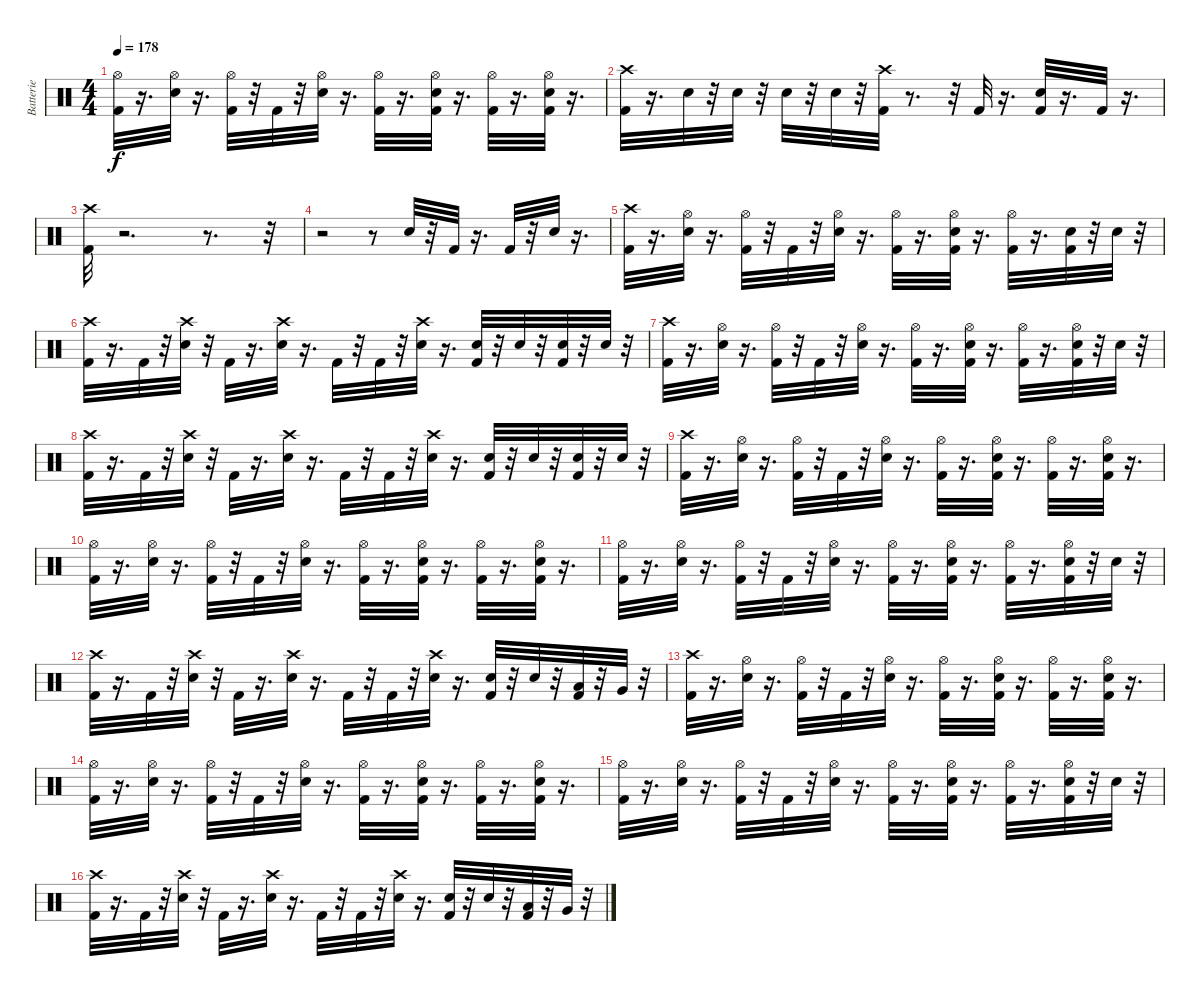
\track ("Batterie" "Batterie") {instrument percussion}
\staff {score}
\articulation defaults
\ts (4 4)
\tempo 178
\clef neutral
\ks c
("Kick (hit) 2" "Hi-Hat (open)").32{dy f} r.16{d} ("Electric Snare (hit)" "Hi-Hat (open)").32 r.16{d} ("Kick (hit) 2" "Hi-Hat (open)").32 r.32 "Kick (hit) 2".32 r.32 ("Electric Snare (hit)" "Hi-Hat (open)").32 r.16{d} ("Kick (hit) 2" "Hi-Hat (open)").32 r.16{d} ("Kick (hit) 2" "Electric Snare (hit)" "Hi-Hat (open)").32 r.16{d} ("Kick (hit) 2" "Hi-Hat (open)").32 r.16{d} ("Kick (hit) 2" "Electric Snare (hit)" "Hi-Hat (open)").32 r.16{d} |
("Kick (hit) 2" "Crash high (hit)").32 r.16{d} "Electric Snare (hit)".32 r.32 "Electric Snare (hit)".32 r.32 "Electric Snare (hit)".32 r.32 "Electric Snare (hit)".32 r.32 ("Crash high (hit)" "Kick (hit) 2").32 r.8{d} r.32 "Kick (hit) 2".32 r.16{d} ("Electric Snare (hit)" "Kick (hit) 2").32 r.16{d} "Kick (hit) 2".32 r.16{d} |
("Kick (hit) 2" "Crash high (hit)").32 r.2{d} r.8{d} r.32 |
r.2 r.8 "Electric Snare (hit)".32 r.32 "Kick (hit) 2".32 r.16{d} "Kick (hit) 2".32 r.32 "Electric Snare (hit)".32 r.16{d} |
("Kick (hit) 2" "Crash high (hit)").32 r.16{d} ("Electric Snare (hit)" "Hi-Hat (open)").32 r.16{d} ("Kick (hit) 2" "Hi-Hat (open)").32 r.32 "Kick (hit) 2".32 r.32 ("Electric Snare (hit)" "Hi-Hat (open)").32 r.16{d} ("Kick (hit) 2" "Hi-Hat (open)").32 r.16{d} ("Electric Snare (hit)" "Kick (hit) 2" "Hi-Hat (open)").32 r.16{d} ("Kick (hit) 2" "Hi-Hat (open)").32 r.16{d} ("Kick (hit) 2" "Electric Snare (hit)").32 r.32 "Electric Snare (hit)".32 r.32 |
("Kick (hit) 2" "Crash high (hit)").32 r.16{d} "Kick (hit) 2".32 r.32 ("Crash high (hit)" "Electric Snare (hit)").32 r.32 "Kick (hit) 2".32 r.16{d} ("Electric Snare (hit)" "Crash high (hit)").32 r.16{d} "Kick (hit) 2".32 r.32 "Kick (hit) 2".32 r.32 ("Electric Snare (hit)" "Crash high (hit)").32 r.16{d} ("Kick (hit) 2" "Electric Snare (hit)").32 r.32 "Electric Snare (hit)".32 r.32 ("Kick (hit) 2" "Electric Snare (hit)").32 r.32 "Electric Snare (hit)".32 r.32 |
("Kick (hit) 2" "Crash high (hit)").32 r.16{d} ("Electric Snare (hit)" "Hi-Hat (open)").32 r.16{d} ("Kick (hit) 2" "Hi-Hat (open)").32 r.32 "Kick (hit) 2".32 r.32 ("Electric Snare (hit)" "Hi-Hat (open)").32 r.16{d} ("Kick (hit) 2" "Hi-Hat (open)").32 r.16{d} ("Electric Snare (hit)" "Kick (hit) 2" "Hi-Hat (open)").32 r.16{d} ("Kick (hit) 2" "Hi-Hat (open)").32 r.16{d} ("Electric Snare (hit)" "Kick (hit) 2" "Hi-Hat (open)").32 r.32 "Electric Snare (hit)".32 r.32 |
("Kick (hit) 2" "Crash high (hit)").32 r.16{d} "Kick (hit) 2".32 r.32 ("Crash high (hit)" "Electric Snare (hit)").32 r.32 "Kick (hit) 2".32 r.16{d} ("Electric Snare (hit)" "Crash high (hit)").32 r.16{d} "Kick (hit) 2".32 r.32 "Kick (hit) 2".32 r.32 ("Electric Snare (hit)" "Crash high (hit)").32 r.16{d} ("Kick (hit) 2" "Electric Snare (hit)").32 r.32 "Electric Snare (hit)".32 r.32 ("Kick (hit) 2" "Electric Snare (hit)").32 r.32 "Electric Snare (hit)".32 r.32 |
("Kick (hit) 2" "Crash high (hit)").32 r.16{d} ("Electric Snare (hit)" "Hi-Hat (open)").32 r.16{d} ("Kick (hit) 2" "Hi-Hat (open)").32 r.32 "Kick (hit) 2".32 r.32 ("Electric Snare (hit)" "Hi-Hat (open)").32 r.16{d} ("Kick (hit) 2" "Hi-Hat (open)").32 r.16{d} ("Electric Snare (hit)" "Kick (hit) 2" "Hi-Hat (open)").32 r.16{d} ("Kick (hit) 2" "Hi-Hat (open)").32 r.16{d} ("Electric Snare (hit)" "Kick (hit) 2" "Hi-Hat (open)").32 r.16{d} |
("Kick (hit) 2" "Hi-Hat (open)").32 r.16{d} ("Electric Snare (hit)" "Hi-Hat (open)").32 r.16{d} ("Kick (hit) 2" "Hi-Hat (open)").32 r.32 "Kick (hit) 2".32 r.32 ("Electric Snare (hit)" "Hi-Hat (open)").32 r.16{d} ("Kick (hit) 2" "Hi-Hat (open)").32 r.16{d} ("Kick (hit) 2" "Electric Snare (hit)" "Hi-Hat (open)").32 r.16{d} ("Kick (hit) 2" "Hi-Hat (open)").32 r.16{d} ("Kick (hit) 2" "Electric Snare (hit)" "Hi-Hat (open)").32 r.16{d} |
("Kick (hit) 2" "Hi-Hat (open)").32 r.16{d} ("Electric Snare (hit)" "Hi-Hat (open)").32 r.16{d} ("Kick (hit) 2" "Hi-Hat (open)").32 r.32 "Kick (hit) 2".32 r.32 ("Electric Snare (hit)" "Hi-Hat (open)").32 r.16{d} ("Kick (hit) 2" "Hi-Hat (open)").32 r.16{d} ("Electric Snare (hit)" "Kick (hit) 2" "Hi-Hat (open)").32 r.16{d} ("Kick (hit) 2" "Hi-Hat (open)").32 r.16{d} ("Electric Snare (hit)" "Kick (hit) 2" "Hi-Hat (open)").32 r.32 "Electric Snare (hit)".32 r.32 |
("Kick (hit) 2" "Crash high (hit)").32 r.16{d} "Kick (hit) 2".32 r.32 ("Crash high (hit)" "Electric Snare (hit)").32 r.32 "Kick (hit) 2".32 r.16{d} ("Electric Snare (hit)" "Crash high (hit)").32 r.16{d} "Kick (hit) 2".32 r.32 "Kick (hit) 2".32 r.32 ("Electric Snare (hit)" "Crash high (hit)").32 r.16{d} ("Kick (hit) 2" "Electric Snare (hit)").32 r.32 "Electric Snare (hit)".32 r.32 ("Kick (hit) 2" "Low Tom (hit)").32 r.32 "Very Low Tom (hit)".32 r.32 |
("Kick (hit) 2" "Crash high (hit)").32 r.16{d} ("Electric Snare (hit)" "Hi-Hat (open)").32 r.16{d} ("Kick (hit) 2" "Hi-Hat (open)").32 r.32 "Kick (hit) 2".32 r.32 ("Electric Snare (hit)" "Hi-Hat (open)").32 r.16{d} ("Kick (hit) 2" "Hi-Hat (open)").32 r.16{d} ("Electric Snare (hit)" "Kick (hit) 2" "Hi-Hat (open)").32 r.16{d} ("Kick (hit) 2" "Hi-Hat (open)").32 r.16{d} ("Electric Snare (hit)" "Kick (hit) 2" "Hi-Hat (open)").32 r.16{d} |
("Kick (hit) 2" "Hi-Hat (open)").32 r.16{d} ("Electric Snare (hit)" "Hi-Hat (open)").32 r.16{d} ("Kick (hit) 2" "Hi-Hat (open)").32 r.32 "Kick (hit) 2".32 r.32 ("Electric Snare (hit)" "Hi-Hat (open)").32 r.16{d} ("Kick (hit) 2" "Hi-Hat (open)").32 r.16{d} ("Kick (hit) 2" "Electric Snare (hit)" "Hi-Hat (open)").32 r.16{d} ("Kick (hit) 2" "Hi-Hat (open)").32 r.16{d} ("Kick (hit) 2" "Electric Snare (hit)" "Hi-Hat (open)").32 r.16{d} |
("Kick (hit) 2" "Hi-Hat (open)").32 r.16{d} ("Electric Snare (hit)" "Hi-Hat (open)").32 r.16{d} ("Kick (hit) 2" "Hi-Hat (open)").32 r.32 "Kick (hit) 2".32 r.32 ("Electric Snare (hit)" "Hi-Hat (open)").32 r.16{d} ("Kick (hit) 2" "Hi-Hat (open)").32 r.16{d} ("Electric Snare (hit)" "Kick (hit) 2" "Hi-Hat (open)").32 r.16{d} ("Kick (hit) 2" "Hi-Hat (open)").32 r.16{d} ("Electric Snare (hit)" "Kick (hit) 2" "Hi-Hat (open)").32 r.32 "Electric Snare (hit)".32 r.32 |
("Kick (hit) 2" "Crash high (hit)").32 r.16{d} "Kick (hit) 2".32 r.32 ("Crash high (hit)" "Electric Snare (hit)").32 r.32 "Kick (hit) 2".32 r.16{d} ("Electric Snare (hit)" "Crash high (hit)").32 r.16{d} "Kick (hit) 2".32 r.32 "Kick (hit) 2".32 r.32 ("Electric Snare (hit)" "Crash high (hit)").32 r.16{d} ("Kick (hit) 2" "Electric Snare (hit)").32 r.32 "Electric Snare (hit)".32 r.32 ("Kick (hit) 2" "Low Tom (hit)").32 r.32 "Very Low Tom (hit)".32 r.32
